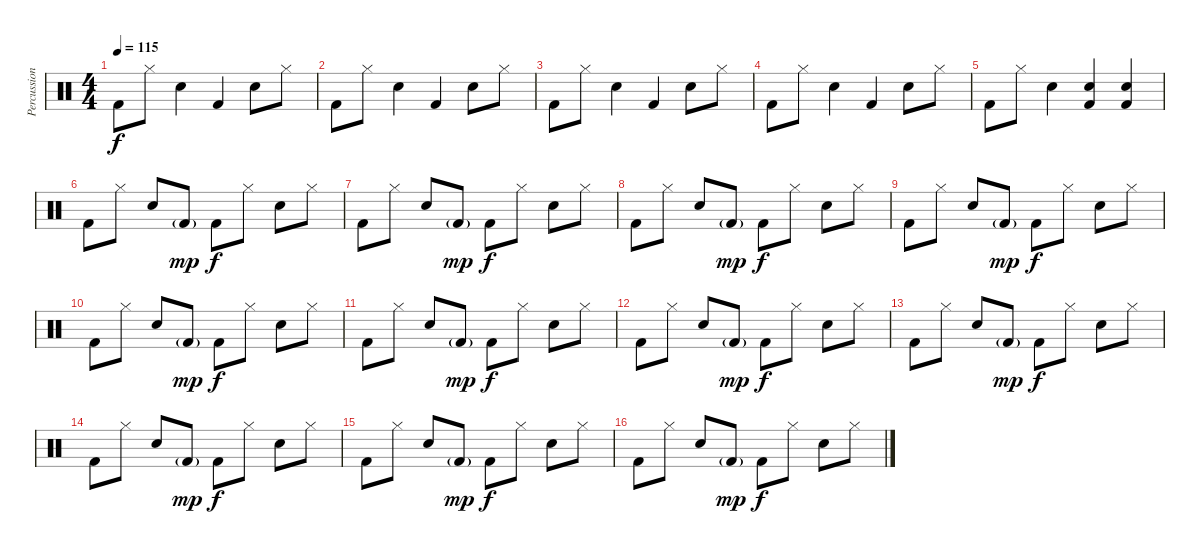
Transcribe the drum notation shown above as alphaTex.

\track ("Percussion" "Percussion") {instrument percussion}
\staff {score}
\articulation defaults
\ts (4 4)
\tempo 115
\clef neutral
\ks c "Kick (hit) 2".8{dy f} "Hi-Hat (closed)".8 "Snare (hit) 2".4 "Kick (hit) 2".4 "Snare (hit) 2".8 "Hi-Hat (closed)".8
|
"Kick (hit) 2".8 "Hi-Hat (closed)".8 "Snare (hit) 2".4 "Kick (hit) 2".4 "Snare (hit) 2".8 "Hi-Hat (closed)".8 |
"Kick (hit) 2".8 "Hi-Hat (closed)".8 "Snare (hit) 2".4 "Kick (hit) 2".4 "Snare (hit) 2".8 "Hi-Hat (closed)".8 |
"Kick (hit) 2".8 "Hi-Hat (closed)".8 "Snare (hit) 2".4 "Kick (hit) 2".4 "Snare (hit) 2".8 "Hi-Hat (closed)".8 |
"Kick (hit) 2".8 "Hi-Hat (closed)".8 "Snare (hit) 2".4 ("Snare (hit) 2" "Kick (hit) 2").4 ("Snare (hit) 2" "Kick (hit) 2").4 |
"Kick (hit) 2".8 "Hi-Hat (closed)".8 "Snare (hit) 2".8 "Kick (hit) 2"{g}.8{dy mp} "Kick (hit) 2".8{dy f} "Hi-Hat (closed)".8 "Snare (hit) 2".8 "Hi-Hat (closed)".8 |
"Kick (hit) 2".8 "Hi-Hat (closed)".8 "Snare (hit) 2".8 "Kick (hit) 2"{g}.8{dy mp} "Kick (hit) 2".8{dy f} "Hi-Hat (closed)".8 "Snare (hit) 2".8 "Hi-Hat (closed)".8 |
"Kick (hit) 2".8 "Hi-Hat (closed)".8 "Snare (hit) 2".8 "Kick (hit) 2"{g}.8{dy mp} "Kick (hit) 2".8{dy f} "Hi-Hat (closed)".8 "Snare (hit) 2".8 "Hi-Hat (closed)".8 |
"Kick (hit) 2".8 "Hi-Hat (closed)".8 "Snare (hit) 2".8 "Kick (hit) 2"{g}.8{dy mp} "Kick (hit) 2".8{dy f} "Hi-Hat (closed)".8 "Snare (hit) 2".8 "Hi-Hat (closed)".8 |
"Kick (hit) 2".8 "Hi-Hat (closed)".8 "Snare (hit) 2".8 "Kick (hit) 2"{g}.8{dy mp} "Kick (hit) 2".8{dy f} "Hi-Hat (closed)".8 "Snare (hit) 2".8 "Hi-Hat (closed)".8 |
"Kick (hit) 2".8 "Hi-Hat (closed)".8 "Snare (hit) 2".8 "Kick (hit) 2"{g}.8{dy mp} "Kick (hit) 2".8{dy f} "Hi-Hat (closed)".8 "Snare (hit) 2".8 "Hi-Hat (closed)".8 |
"Kick (hit) 2".8 "Hi-Hat (closed)".8 "Snare (hit) 2".8 "Kick (hit) 2"{g}.8{dy mp} "Kick (hit) 2".8{dy f} "Hi-Hat (closed)".8 "Snare (hit) 2".8 "Hi-Hat (closed)".8 |
"Kick (hit) 2".8 "Hi-Hat (closed)".8 "Snare (hit) 2".8 "Kick (hit) 2"{g}.8{dy mp} "Kick (hit) 2".8{dy f} "Hi-Hat (closed)".8 "Snare (hit) 2".8 "Hi-Hat (closed)".8 |
"Kick (hit) 2".8 "Hi-Hat (closed)".8 "Snare (hit) 2".8 "Kick (hit) 2"{g}.8{dy mp} "Kick (hit) 2".8{dy f} "Hi-Hat (closed)".8 "Snare (hit) 2".8 "Hi-Hat (closed)".8 |
"Kick (hit) 2".8 "Hi-Hat (closed)".8 "Snare (hit) 2".8 "Kick (hit) 2"{g}.8{dy mp} "Kick (hit) 2".8{dy f} "Hi-Hat (closed)".8 "Snare (hit) 2".8 "Hi-Hat (closed)".8 |
"Kick (hit) 2".8 "Hi-Hat (closed)".8 "Snare (hit) 2".8 "Kick (hit) 2"{g}.8{dy mp} "Kick (hit) 2".8{dy f} "Hi-Hat (closed)".8 "Snare (hit) 2".8 "Hi-Hat (closed)".8
